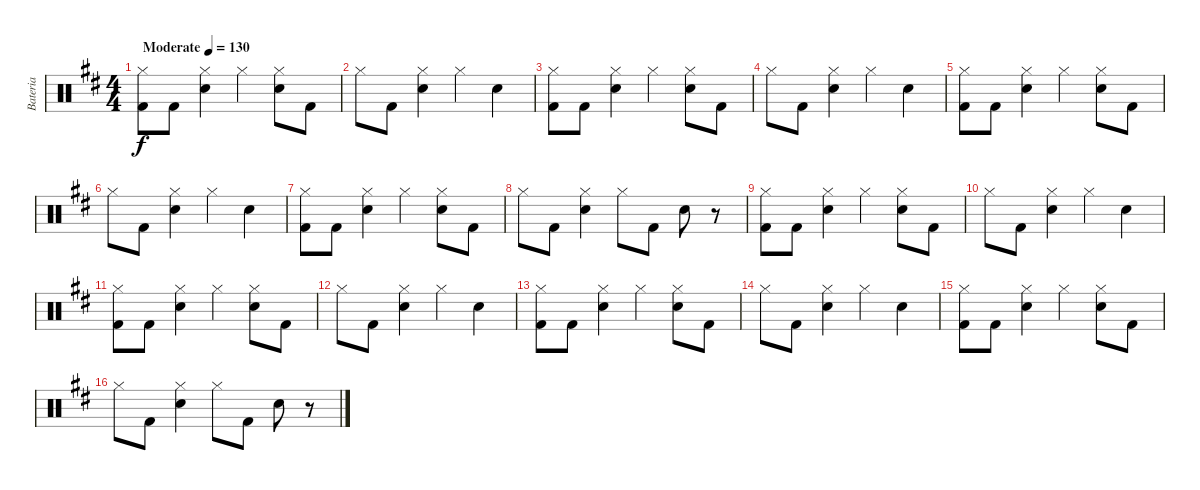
\track ("Bateria" "Bateria") {instrument percussion}
\staff {score}
\articulation defaults
\ts (4 4)
\tempo (130 "Moderate")
\clef neutral
\ks d
("Hi-Hat (closed)" "Kick (hit) 2").8{dy f} "Kick (hit) 2".8 ("Hi-Hat (closed)" "Electric Snare (hit)").4 "Hi-Hat (closed)".4 ("Hi-Hat (closed)" "Electric Snare (hit)").8 "Kick (hit) 2".8 |
"Hi-Hat (closed)".8 "Kick (hit) 2".8 ("Hi-Hat (closed)" "Electric Snare (hit)").4 "Hi-Hat (closed)".4 "Electric Snare (hit)".4 |
("Hi-Hat (closed)" "Kick (hit) 2").8 "Kick (hit) 2".8 ("Hi-Hat (closed)" "Electric Snare (hit)").4 "Hi-Hat (closed)".4 ("Hi-Hat (closed)" "Electric Snare (hit)").8 "Kick (hit) 2".8 |
"Hi-Hat (closed)".8 "Kick (hit) 2".8 ("Hi-Hat (closed)" "Electric Snare (hit)").4 "Hi-Hat (closed)".4 "Electric Snare (hit)".4 |
("Hi-Hat (closed)" "Kick (hit) 2").8 "Kick (hit) 2".8 ("Hi-Hat (closed)" "Electric Snare (hit)").4 "Hi-Hat (closed)".4 ("Hi-Hat (closed)" "Electric Snare (hit)").8 "Kick (hit) 2".8 |
"Hi-Hat (closed)".8 "Kick (hit) 2".8 ("Hi-Hat (closed)" "Electric Snare (hit)").4 "Hi-Hat (closed)".4 "Electric Snare (hit)".4 |
("Hi-Hat (closed)" "Kick (hit) 2").8 "Kick (hit) 2".8 ("Hi-Hat (closed)" "Electric Snare (hit)").4 "Hi-Hat (closed)".4 ("Hi-Hat (closed)" "Electric Snare (hit)").8 "Kick (hit) 2".8 |
"Hi-Hat (closed)".8 "Kick (hit) 2".8 ("Hi-Hat (closed)" "Electric Snare (hit)").4 "Hi-Hat (closed)".8 "Kick (hit) 2".8 "Electric Snare (hit)".8 r.8 |
("Hi-Hat (closed)" "Kick (hit) 2").8 "Kick (hit) 2".8 ("Hi-Hat (closed)" "Electric Snare (hit)").4 "Hi-Hat (closed)".4 ("Hi-Hat (closed)" "Electric Snare (hit)").8 "Kick (hit) 2".8 |
"Hi-Hat (closed)".8 "Kick (hit) 2".8 ("Hi-Hat (closed)" "Electric Snare (hit)").4 "Hi-Hat (closed)".4 "Electric Snare (hit)".4 |
("Hi-Hat (closed)" "Kick (hit) 2").8 "Kick (hit) 2".8 ("Hi-Hat (closed)" "Electric Snare (hit)").4 "Hi-Hat (closed)".4 ("Hi-Hat (closed)" "Electric Snare (hit)").8 "Kick (hit) 2".8 |
"Hi-Hat (closed)".8 "Kick (hit) 2".8 ("Hi-Hat (closed)" "Electric Snare (hit)").4 "Hi-Hat (closed)".4 "Electric Snare (hit)".4 |
("Hi-Hat (closed)" "Kick (hit) 2").8 "Kick (hit) 2".8 ("Hi-Hat (closed)" "Electric Snare (hit)").4 "Hi-Hat (closed)".4 ("Hi-Hat (closed)" "Electric Snare (hit)").8 "Kick (hit) 2".8 |
"Hi-Hat (closed)".8 "Kick (hit) 2".8 ("Hi-Hat (closed)" "Electric Snare (hit)").4 "Hi-Hat (closed)".4 "Electric Snare (hit)".4 |
("Hi-Hat (closed)" "Kick (hit) 2").8 "Kick (hit) 2".8 ("Hi-Hat (closed)" "Electric Snare (hit)").4 "Hi-Hat (closed)".4 ("Hi-Hat (closed)" "Electric Snare (hit)").8 "Kick (hit) 2".8 |
"Hi-Hat (closed)".8 "Kick (hit) 2".8 ("Hi-Hat (closed)" "Electric Snare (hit)").4 "Hi-Hat (closed)".8 "Kick (hit) 2".8 "Electric Snare (hit)".8 r.8
